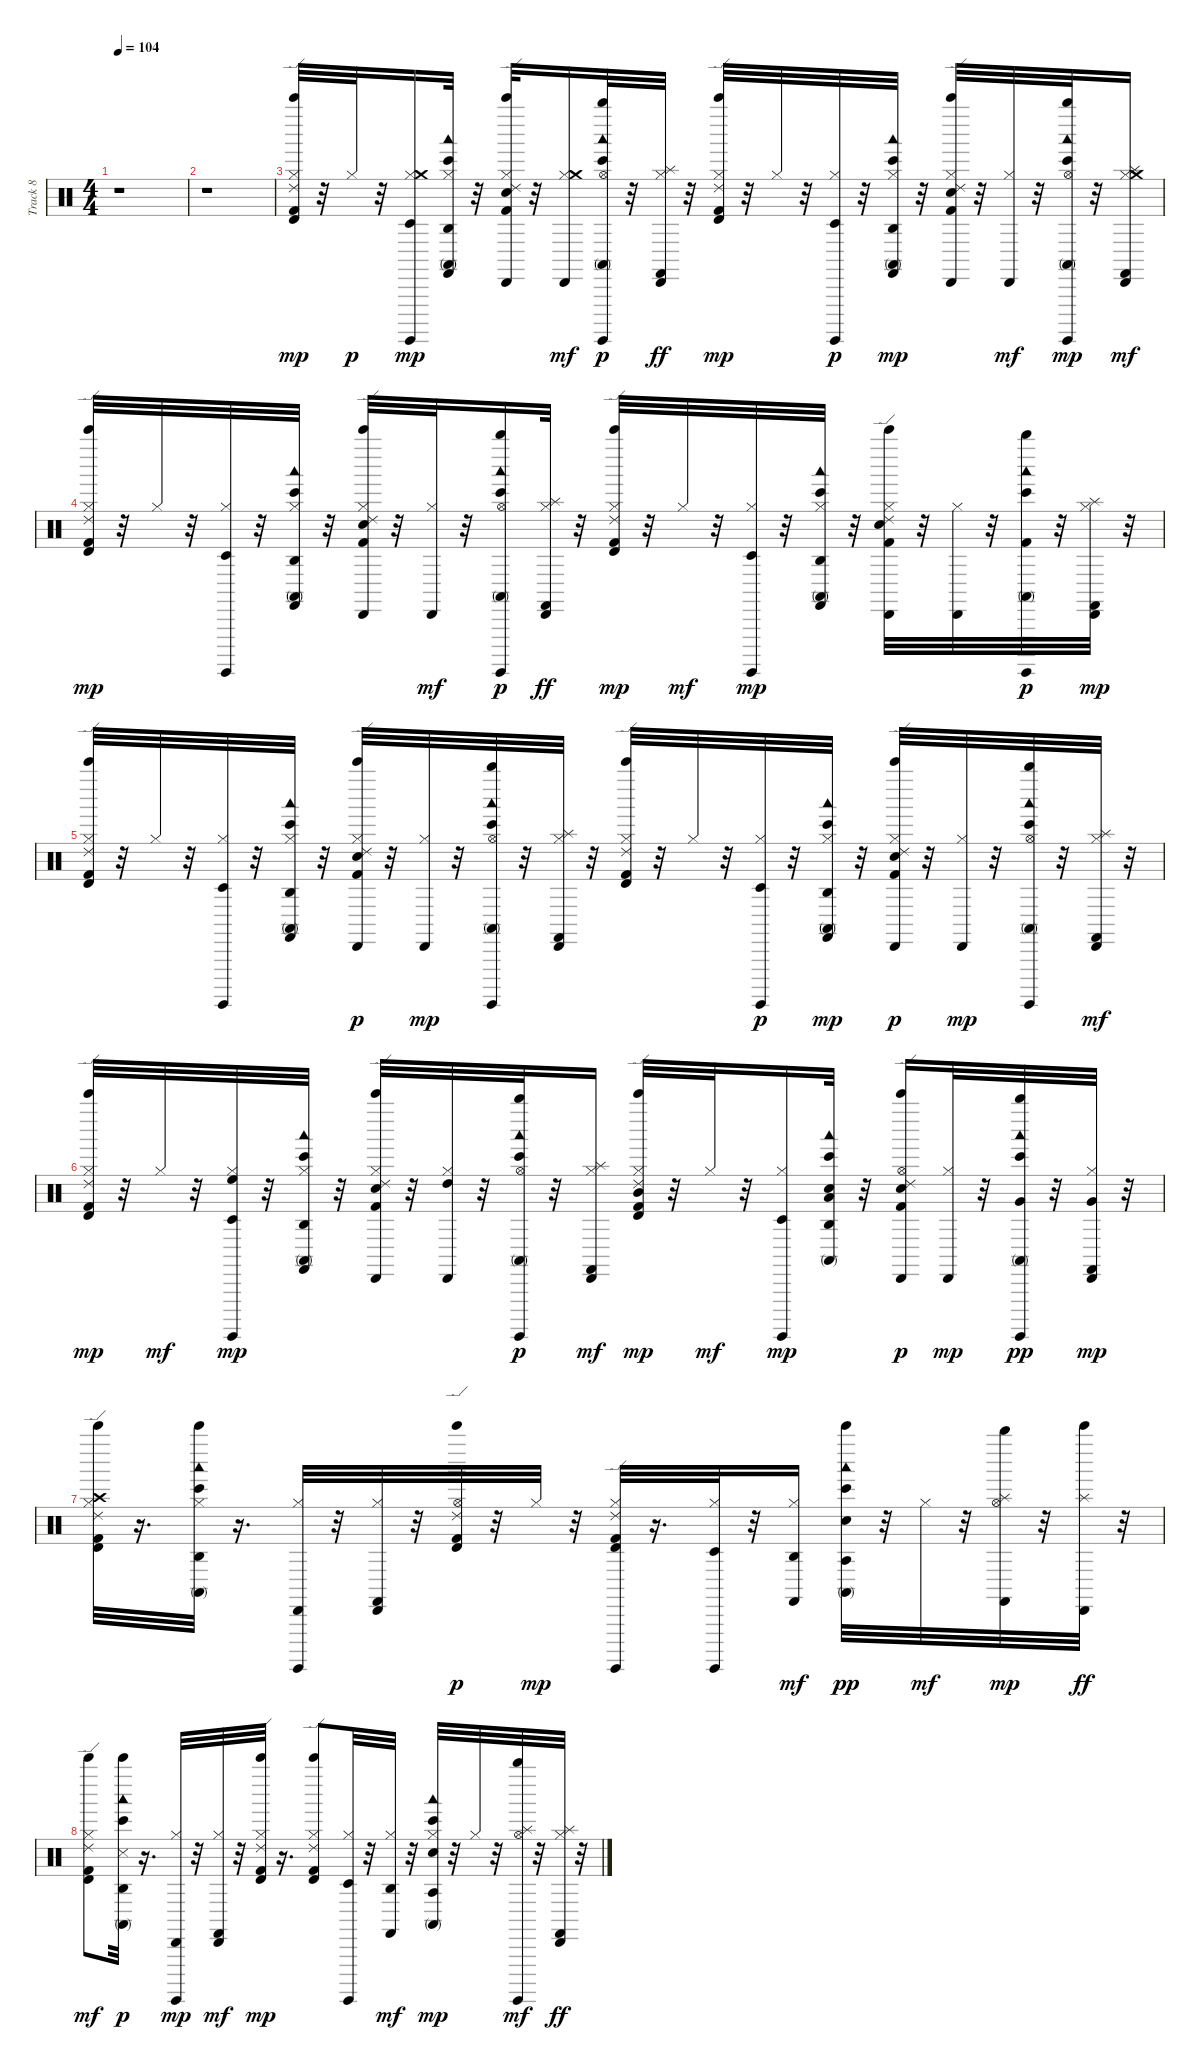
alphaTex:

\track ("Track 8" "Track 8") {instrument percussion}
\staff {score}
\articulation defaults
\ts (4 4)
\tempo 104
\clef neutral
\ks c
r.1{dy mp} |
r.1 |
("Timbale high (hit)" "Ride (edge) 2" "Kick (hit) 2" "Bell Tree (hit)" "Hi-Hat (closed)").32{balance 8} r.32 "Hi-Hat (closed)".32{dy p} r.32 ("Timbale low (hit)" "Surdo (hit)" "Hi-Hat (closed)" "Crash medium (hit)").16{dy mp} ("Agogo high (hit)" "Bongo High (hit)" "Conga high (mute)" "Woodblock low (hit)" "Castanets (hit)" "Hi-Hat (closed)").32 r.32 ("Cabasa (hit)" "Ride (edge) 2" "Kick (hit) 2" "Electric Snare (hit)" "Bell Tree (hit)" "Hi-Hat (closed)").32 r.32 ("Cabasa (hit)" "Hi-Hat (closed)" "Crash medium (hit)").16{dy mf} ("Whistle high (hit)" "Bongo High (hit)" "Conga high (mute)" "Woodblock low (hit)" "Surdo (hit)" "Hi-Hat (open)").32{dy p} r.32 ("Cabasa (hit)" "Castanets (hit)" "Hi-Hat (closed)" "Splash (hit)").32{dy ff} r.32 ("Timbale high (hit)" "Ride (edge) 2" "Kick (hit) 2" "Bell Tree (hit)" "Hi-Hat (closed)").32{dy mp} r.32 "Hi-Hat (closed)".32 r.32 ("Timbale low (hit)" "Surdo (hit)" "Hi-Hat (closed)").32{dy p} r.32 ("Agogo high (hit)" "Bongo High (hit)" "Conga high (mute)" "Woodblock low (hit)" "Castanets (hit)" "Hi-Hat (closed)").32{dy mp} r.32 ("Cabasa (hit)" "Ride (edge) 2" "Kick (hit) 2" "Electric Snare (hit)" "Bell Tree (hit)" "Hi-Hat (closed)").32 r.32 ("Cabasa (hit)" "Hi-Hat (closed)").32{dy mf} r.32 ("Whistle high (hit)" "Bongo High (hit)" "Conga high (mute)" "Woodblock low (hit)" "Surdo (hit)" "Hi-Hat (open)").32{dy mp} r.32 ("Cabasa (hit)" "Castanets (hit)" "Hi-Hat (closed)" "Splash (hit)" "Crash medium (hit)").16{dy mf} |
("Timbale high (hit)" "Ride (edge) 2" "Kick (hit) 2" "Bell Tree (hit)" "Hi-Hat (closed)").32{dy mp} r.32 "Hi-Hat (closed)".32 r.32 ("Timbale low (hit)" "Surdo (hit)" "Hi-Hat (closed)").32 r.32 ("Agogo high (hit)" "Bongo High (hit)" "Conga high (mute)" "Woodblock low (hit)" "Castanets (hit)" "Hi-Hat (closed)").32 r.32 ("Cabasa (hit)" "Ride (edge) 2" "Kick (hit) 2" "Electric Snare (hit)" "Bell Tree (hit)" "Hi-Hat (closed)").32 r.32 ("Cabasa (hit)" "Hi-Hat (closed)").32{dy mf} r.32 ("Whistle high (hit)" "Bongo High (hit)" "Conga high (mute)" "Woodblock low (hit)" "Surdo (hit)" "Hi-Hat (open)").16{dy p} ("Cabasa (hit)" "Castanets (hit)" "Hi-Hat (closed)" "Splash (hit)").32{dy ff} r.32 ("Timbale high (hit)" "Ride (edge) 2" "Kick (hit) 2" "Bell Tree (hit)" "Hi-Hat (closed)").32{dy mp} r.32 "Hi-Hat (closed)".32{dy mf} r.32 ("Timbale low (hit)" "Surdo (hit)" "Hi-Hat (closed)").32{dy mp} r.32 ("Agogo high (hit)" "Bongo High (hit)" "Conga high (mute)" "Woodblock low (hit)" "Castanets (hit)" "Hi-Hat (closed)").32 r.32 ("Cabasa (hit)" "Ride (edge) 2" "Kick (hit) 2" "Electric Snare (hit)" "Bell Tree (hit)" "Hi-Hat (closed)").32 r.32 ("Cabasa (hit)" "Hi-Hat (closed)").32 r.32 ("Whistle high (hit)" "Bongo High (hit)" "Conga high (mute)" "Kick (hit) 2" "Woodblock low (hit)" "Surdo (hit)").32{dy p} r.32 ("Cabasa (hit)" "Castanets (hit)" "Hi-Hat (closed)" "Splash (hit)").32{dy mp} r.32 |
("Timbale high (hit)" "Ride (edge) 2" "Kick (hit) 2" "Bell Tree (hit)" "Hi-Hat (closed)").32 r.32 "Hi-Hat (closed)".32 r.32 ("Timbale low (hit)" "Surdo (hit)" "Hi-Hat (closed)").32 r.32 ("Agogo high (hit)" "Bongo High (hit)" "Conga high (mute)" "Woodblock low (hit)" "Castanets (hit)" "Hi-Hat (closed)").32 r.32 ("Cabasa (hit)" "Ride (edge) 2" "Kick (hit) 2" "Electric Snare (hit)" "Bell Tree (hit)" "Hi-Hat (closed)").32{dy p} r.32 ("Cabasa (hit)" "Hi-Hat (closed)").32{dy mp} r.32 ("Whistle high (hit)" "Bongo High (hit)" "Conga high (mute)" "Woodblock low (hit)" "Surdo (hit)" "Hi-Hat (open)").32 r.32 ("Cabasa (hit)" "Castanets (hit)" "Hi-Hat (closed)" "Splash (hit)").32 r.32 ("Timbale high (hit)" "Ride (edge) 2" "Kick (hit) 2" "Bell Tree (hit)" "Hi-Hat (closed)").32 r.32 "Hi-Hat (closed)".32 r.32 ("Timbale low (hit)" "Surdo (hit)" "Hi-Hat (closed)").32{dy p} r.32 ("Agogo high (hit)" "Bongo High (hit)" "Conga high (mute)" "Woodblock low (hit)" "Castanets (hit)" "Hi-Hat (closed)").32{dy mp} r.32 ("Cabasa (hit)" "Ride (edge) 2" "Kick (hit) 2" "Electric Snare (hit)" "Bell Tree (hit)" "Hi-Hat (closed)").32{dy p} r.32 ("Cabasa (hit)" "Hi-Hat (closed)").32{dy mp} r.32 ("Whistle high (hit)" "Bongo High (hit)" "Conga high (mute)" "Woodblock low (hit)" "Surdo (hit)" "Hi-Hat (open)").32 r.32 ("Cabasa (hit)" "Castanets (hit)" "Hi-Hat (closed)" "Splash (hit)").32{dy mf} r.32 |
("Timbale high (hit)" "Ride (edge) 2" "Kick (hit) 2" "Bell Tree (hit)" "Hi-Hat (closed)").32{dy mp} r.32 "Hi-Hat (closed)".32{dy mf} r.32 ("Timbale low (hit)" "High Floor Tom (hit)" "Surdo (hit)" "Hi-Hat (closed)").32{dy mp} r.32 ("Agogo high (hit)" "Bongo High (hit)" "Conga high (mute)" "Woodblock low (hit)" "Castanets (hit)" "Hi-Hat (closed)").32 r.32 ("Cabasa (hit)" "Ride (edge) 2" "Kick (hit) 2" "Electric Snare (hit)" "Bell Tree (hit)" "Hi-Hat (closed)").32 r.32 ("Cabasa (hit)" "High Tom (hit)" "Hi-Hat (closed)").32 r.32 ("Whistle high (hit)" "Bongo High (hit)" "Conga high (mute)" "Woodblock low (hit)" "Surdo (hit)" "Hi-Hat (open)").32{dy p} r.32 ("Cabasa (hit)" "Castanets (hit)" "Hi-Hat (closed)" "Splash (hit)").16{dy mf} ("Timbale high (hit)" "Ride (edge) 2" "Kick (hit) 2" "Mid Tom (hit)" "Bell Tree (hit)" "Hi-Hat (closed)").32{dy mp} r.32 "Hi-Hat (closed)".32{dy mf} r.32 ("Timbale low (hit)" "Surdo (hit)" "Hi-Hat (closed)").16{dy mp} ("Agogo high (hit)" "Bongo High (hit)" "Conga high (mute)" "Electric Snare (hit)" "Woodblock low (hit)" "Low Tom (hit)").32 r.32 ("Cabasa (hit)" "Ride (edge) 2" "Kick (hit) 2" "Electric Snare (hit)" "Bell Tree (hit)" "Hi-Hat (open)").16{dy p} ("Cabasa (hit)" "Hi-Hat (closed)").32{dy mp} r.32 ("Whistle high (hit)" "Conga high (mute)" "Bongo High (hit)" "Woodblock low (hit)" "Very Low Tom (hit)" "Surdo (hit)").32{dy pp} r.32 ("Cabasa (hit)" "Very Low Tom (hit)" "Castanets (hit)" "Hi-Hat (closed)").32{dy mp} r.32 |
("Timbale high (hit)" "Ride (edge) 2" "Kick (hit) 2" "Crash high (hit)" "Bell Tree (hit)" "Hi-Hat (closed)").32 r.16{d} ("Agogo high (hit)" "Bongo High (hit)" "Conga high (mute)" "Woodblock low (hit)" "Bell Tree (hit)" "Hi-Hat (closed)").32 r.16{d} ("Cabasa (hit)" "Surdo (hit)" "Hi-Hat (closed)").32 r.32 ("Cabasa (hit)" "Castanets (hit)" "Hi-Hat (closed)").32 r.32 ("Timbale high (hit)" "Ride (edge) 2" "Kick (hit) 2" "Hi-Hat (open)" "Bell Tree (hit)").32{dy p} r.32 "Hi-Hat (closed)".32{dy mp} r.32 ("Timbale high (hit)" "Ride (edge) 2" "Kick (hit) 2" "Surdo (hit)" "Hi-Hat (closed)").32 r.16{d} ("Timbale low (hit)" "Surdo (hit)" "Hi-Hat (closed)").32 r.32 ("Agogo high (hit)" "Castanets (hit)" "Hi-Hat (closed)").16{dy mf} ("Agogo tow (hit)" "Bongo High (hit)" "Conga high (mute)" "Electric Snare (hit)" "Woodblock low (hit)" "Bell Tree (hit)").32{dy pp} r.32 "Hi-Hat (closed)".32{dy mf} r.32 ("Whistle high (hit)" "Castanets (hit)" "Hi-Hat (open)" "Splash (hit)").32{dy mp} r.32 ("Cabasa (hit)" "Bell Tree (hit)" "Splash (hit)").32{dy ff} r.32 |
("Timbale high (hit)" "Ride (edge) 2" "Kick (hit) 2" "Bell Tree (hit)" "Hi-Hat (closed)").8{dy mf} ("Agogo high (hit)" "Bongo High (hit)" "Conga high (mute)" "Snare (side stick) 3" "Woodblock low (hit)" "Bell Tree (hit)").32{dy p} r.16{d} ("Cabasa (hit)" "Surdo (hit)" "Hi-Hat (closed)").32{dy mp} r.32 ("Cabasa (hit)" "Castanets (hit)" "Hi-Hat (closed)").32{dy mf} r.32 ("Timbale high (hit)" "Ride (edge) 2" "Kick (hit) 2" "Bell Tree (hit)" "Hi-Hat (closed)").32{dy mp} r.16{d} ("Timbale high (hit)" "Ride (edge) 2" "Kick (hit) 2" "Bell Tree (hit)" "Hi-Hat (closed)").8 ("Timbale low (hit)" "Surdo (hit)" "Hi-Hat (closed)").32 r.32 ("Agogo high (hit)" "Castanets (hit)" "Hi-Hat (closed)").32{dy mf} r.32 ("Agogo tow (hit)" "Bongo High (hit)" "Conga high (mute)" "Electric Snare (hit)" "Woodblock low (hit)" "Hi-Hat (closed)").32{dy mp} r.32 "Hi-Hat (closed)".32 r.32 ("Whistle high (hit)" "Surdo (hit)" "Hi-Hat (open)" "Splash (hit)").32{dy mf} r.32 ("Cabasa (hit)" "Castanets (hit)" "Hi-Hat (closed)" "Splash (hit)").32{dy ff} r.32
